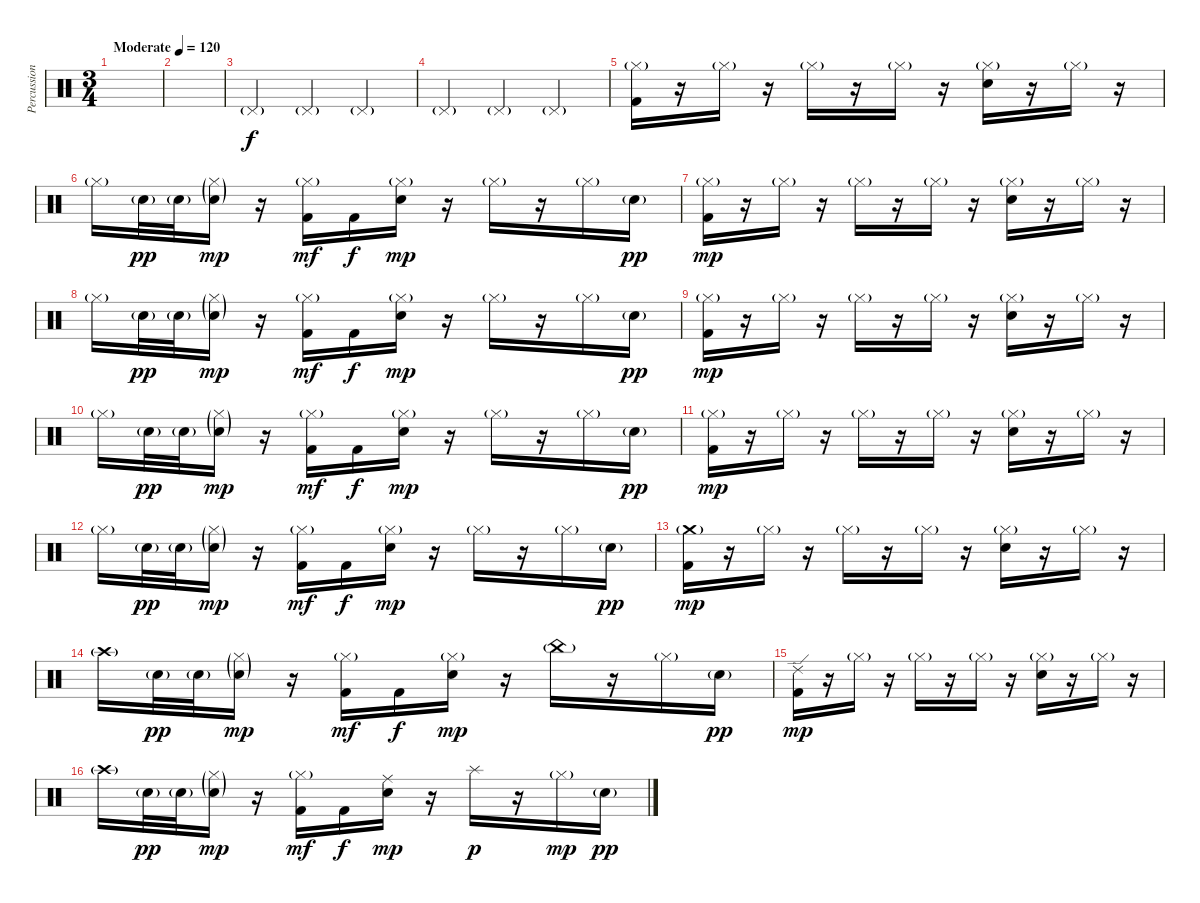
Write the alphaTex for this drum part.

\track ("Percussion" "Percussion") {instrument percussion bank 129}
\staff {score}
\articulation defaults
\ts (3 4)
\tempo (120 "Moderate")
\clef neutral
\ks c
|
|
"Pedal Hi-Hat (hit)"{g}.4 "Pedal Hi-Hat (hit)"{g}.4 "Pedal Hi-Hat (hit)"{g}.4 |
"Pedal Hi-Hat (hit)"{g}.4 "Pedal Hi-Hat (hit)"{g}.4 "Pedal Hi-Hat (hit)"{g}.4 |
("Hi-Hat (closed)"{g} "Kick (hit) 2").16 r.16 "Hi-Hat (closed)"{g}.16 r.16 "Hi-Hat (closed)"{g}.16 r.16 "Hi-Hat (closed)"{g}.16 r.16 ("Hi-Hat (closed)"{g} "Electric Snare (hit)").16 r.16 "Hi-Hat (closed)"{g}.16 r.16 |
"Hi-Hat (closed)"{g}.16 "Electric Snare (hit)"{g}.32{dy pp} "Electric Snare (hit)"{g}.32 ("Hi-Hat (closed)"{g} "Electric Snare (hit)"{g}).16{dy mp} r.16 ("Hi-Hat (closed)"{g} "Kick (hit) 2").16{dy mf} "Kick (hit) 2".16{dy f} ("Hi-Hat (closed)"{g} "Electric Snare (hit)").16{dy mp} r.16 "Hi-Hat (closed)"{g}.16 r.16 "Hi-Hat (closed)"{g}.16 "Electric Snare (hit)"{g}.16{dy pp} |
("Hi-Hat (closed)"{g} "Kick (hit) 2").16{dy mp} r.16 "Hi-Hat (closed)"{g}.16 r.16 "Hi-Hat (closed)"{g}.16 r.16 "Hi-Hat (closed)"{g}.16 r.16 ("Hi-Hat (closed)"{g} "Electric Snare (hit)").16 r.16 "Hi-Hat (closed)"{g}.16 r.16 |
"Hi-Hat (closed)"{g}.16 "Electric Snare (hit)"{g}.32{dy pp} "Electric Snare (hit)"{g}.32 ("Hi-Hat (closed)"{g} "Electric Snare (hit)"{g}).16{dy mp} r.16 ("Hi-Hat (closed)"{g} "Kick (hit) 2").16{dy mf} "Kick (hit) 2".16{dy f} ("Hi-Hat (closed)"{g} "Electric Snare (hit)").16{dy mp} r.16 "Hi-Hat (closed)"{g}.16 r.16 "Hi-Hat (closed)"{g}.16 "Electric Snare (hit)"{g}.16{dy pp} |
("Hi-Hat (closed)"{g} "Kick (hit) 2").16{dy mp} r.16 "Hi-Hat (closed)"{g}.16 r.16 "Hi-Hat (closed)"{g}.16 r.16 "Hi-Hat (closed)"{g}.16 r.16 ("Hi-Hat (closed)"{g} "Electric Snare (hit)").16 r.16 "Hi-Hat (closed)"{g}.16 r.16 |
"Hi-Hat (closed)"{g}.16 "Electric Snare (hit)"{g}.32{dy pp} "Electric Snare (hit)"{g}.32 ("Hi-Hat (closed)"{g} "Electric Snare (hit)"{g}).16{dy mp} r.16 ("Hi-Hat (closed)"{g} "Kick (hit) 2").16{dy mf} "Kick (hit) 2".16{dy f} ("Hi-Hat (closed)"{g} "Electric Snare (hit)").16{dy mp} r.16 "Hi-Hat (closed)"{g}.16 r.16 "Hi-Hat (closed)"{g}.16 "Electric Snare (hit)"{g}.16{dy pp} |
("Hi-Hat (closed)"{g} "Kick (hit) 2").16{dy mp} r.16 "Hi-Hat (closed)"{g}.16 r.16 "Hi-Hat (closed)"{g}.16 r.16 "Hi-Hat (closed)"{g}.16 r.16 ("Hi-Hat (closed)"{g} "Electric Snare (hit)").16 r.16 "Hi-Hat (closed)"{g}.16 r.16 |
"Hi-Hat (closed)"{g}.16 "Electric Snare (hit)"{g}.32{dy pp} "Electric Snare (hit)"{g}.32 ("Hi-Hat (closed)"{g} "Electric Snare (hit)"{g}).16{dy mp} r.16 ("Hi-Hat (closed)"{g} "Kick (hit) 2").16{dy mf} "Kick (hit) 2".16{dy f} ("Hi-Hat (closed)"{g} "Electric Snare (hit)").16{dy mp} r.16 "Hi-Hat (closed)"{g}.16 r.16 "Hi-Hat (closed)"{g}.16 "Electric Snare (hit)"{g}.16{dy pp} |
("Crash medium (hit)"{g} "Kick (hit) 2").16{dy mp} r.16 "Hi-Hat (closed)"{g}.16 r.16 "Hi-Hat (closed)"{g}.16 r.16 "Hi-Hat (closed)"{g}.16 r.16 ("Hi-Hat (closed)"{g} "Electric Snare (hit)").16 r.16 "Hi-Hat (closed)"{g}.16 r.16 |
"Crash high (hit)"{g}.16 "Electric Snare (hit)"{g}.32{dy pp} "Electric Snare (hit)"{g}.32 ("Hi-Hat (closed)"{g} "Electric Snare (hit)"{g}).16{dy mp} r.16 ("Hi-Hat (closed)"{g} "Kick (hit) 2").16{dy mf} "Kick (hit) 2".16{dy f} ("Hi-Hat (closed)"{g} "Electric Snare (hit)").16{dy mp} r.16 "China (hit)"{g}.16 r.16 "Hi-Hat (closed)"{g}.16 "Electric Snare (hit)"{g}.16{dy pp} |
("Ride (edge) 2" "Kick (hit) 2").16{dy mp} r.16 "Hi-Hat (closed)"{g}.16 r.16 "Hi-Hat (closed)"{g}.16 r.16 "Hi-Hat (closed)"{g}.16 r.16 ("Hi-Hat (closed)"{g} "Electric Snare (hit)").16 r.16 "Hi-Hat (closed)"{g}.16 r.16 |
"Crash high (hit)"{g}.16 "Electric Snare (hit)"{g}.32{dy pp} "Electric Snare (hit)"{g}.32 ("Hi-Hat (closed)"{g} "Electric Snare (hit)"{g}).16{dy mp} r.16 ("Hi-Hat (closed)"{g} "Kick (hit) 2").16{dy mf} "Kick (hit) 2".16{dy f} ("Ride (middle)" "Electric Snare (hit)").16{dy mp} r.16 "Splash (hit)".16{dy p} r.16 "Hi-Hat (closed)"{g}.16{dy mp} "Electric Snare (hit)"{g}.16{dy pp}
